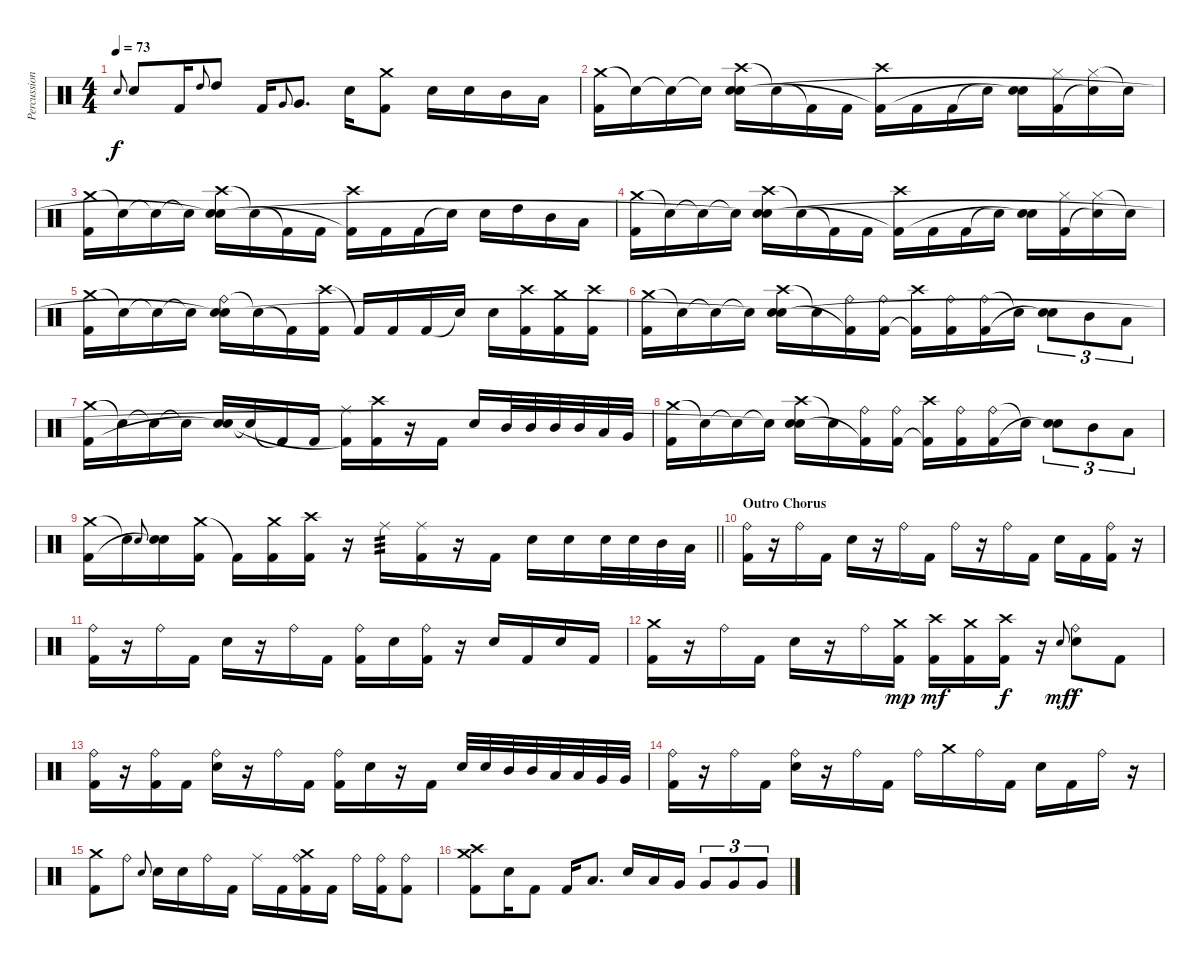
\track ("Percussion" "Percussion") {instrument percussion}
\staff {score}
\articulation defaults
\ts (4 4)
\tempo 73
\clef neutral
\ks c "Snare (hit) 2".8{gr onbeat dy f} "Snare (hit) 2".8 "Kick (hit) 2".16 "High Tom (hit)".8{gr onbeat} "High Tom (hit)".8 "Kick (hit) 2".16 "Very Low Tom (hit)".8{gr onbeat} "Very Low Tom (hit)".8{d} "Snare (hit) 2".16
("Crash medium (hit)" "Kick (hit) 2").8 "Snare (hit) 2".16 "Snare (hit) 2".16 "Mid Tom (hit)".16 "Low Tom (hit)".16 |
("Crash medium (hit)" "Kick (hit) 2").16 "Snare (hit)"{t}.16 "Snare (hit)"{t}.16 "Snare (hit)"{t}.16 ("Crash high (hit)" "Snare (hit) 2" "Snare (hit)"{t}).16 "Snare (hit)"{t}.16 "Kick (hit) 2"{t}.16 "Kick (hit) 2".16 ("Crash high (hit)" "Kick (hit) 2"{t}).16 "Kick (hit) 2".16 "Kick (hit) 2".16 "Snare (hit)"{t}.16 ("Snare (hit) 2" "Snare (hit)"{t}).16 ("Hi-Hat (closed)" "Kick (hit) 2").16 ("Hi-Hat (closed)" "Snare (hit)"{t}).16 "Snare (hit)"{t}.16 |
("Crash medium (hit)" "Kick (hit) 2").16 "Snare (hit)"{t}.16 "Snare (hit)"{t}.16 "Snare (hit)"{t}.16 ("Crash high (hit)" "Snare (hit) 2" "Snare (hit)"{t}).16 "Snare (hit)"{t}.16 "Kick (hit) 2"{t}.16 "Kick (hit) 2".16 ("Crash high (hit)" "Kick (hit) 2"{t}).16 "Kick (hit) 2".16 "Kick (hit) 2".16 "Snare (hit)"{t}.16 "Snare (hit) 2".16 "High Tom (hit)".16 "Mid Tom (hit)".16 "Low Tom (hit)".16 |
("Crash medium (hit)" "Kick (hit) 2").16 "Snare (hit)"{t}.16 "Snare (hit)"{t}.16 "Snare (hit)"{t}.16 ("Crash high (hit)" "Snare (hit) 2" "Snare (hit)"{t}).16 "Snare (hit)"{t}.16 "Kick (hit) 2"{t}.16 "Kick (hit) 2".16 ("Crash high (hit)" "Kick (hit) 2"{t}).16 "Kick (hit) 2".16 "Kick (hit) 2".16 "Snare (hit)"{t}.16 ("Snare (hit) 2" "Snare (hit)"{t}).16 ("Hi-Hat (closed)" "Kick (hit) 2").16 ("Hi-Hat (closed)" "Snare (hit)"{t}).16 "Snare (hit)"{t}.16 |
("Crash medium (hit)" "Kick (hit) 2").16 "Snare (hit)"{t}.16 "Snare (hit)"{t}.16 "Snare (hit)"{t}.16 ("Ride (bell)" "Snare (hit) 2" "Snare (hit)"{t}).16 "Snare (hit)"{t}.16 "Kick (hit) 2"{t}.16 ("Crash high (hit)" "Kick (hit) 2").16 "Kick (hit) 2"{t}.16 "Kick (hit) 2".16 "Kick (hit) 2".16 "Snare (hit)"{t}.16 "Snare (hit) 2".16 ("Crash high (hit)" "Kick (hit) 2").16 ("Crash medium (hit)" "Kick (hit) 2").16 ("Crash high (hit)" "Kick (hit) 2").16 |
("Crash medium (hit)" "Kick (hit) 2").16 "Snare (hit)"{t}.16 "Snare (hit)"{t}.16 "Snare (hit)"{t}.16 ("Crash high (hit)" "Snare (hit) 2" "Snare (hit)"{t}).16 "Snare (hit)"{t}.16 ("Ride (bell)" "Kick (hit) 2"{t}).16 ("Ride (bell)" "Kick (hit) 2").16 ("Crash high (hit)" "Kick (hit) 2"{t}).16 ("Ride (bell)" "Kick (hit) 2").16 ("Ride (bell)" "Kick (hit) 2").16 "Snare (hit)"{t}.16 ("Snare (hit) 2" "Snare (hit)"{t}).8{tu (3 2)} "Mid Tom (hit)".8{tu (3 2)} "Low Tom (hit)".8{tu (3 2)} |
("Crash medium (hit)" "Kick (hit) 2").16 "Snare (hit)"{t}.16 "Snare (hit)"{t}.16 "Snare (hit)"{t}.16 ("Snare (hit) 2" "Snare (hit)"{t}).16 "Snare (hit)"{t}.16 "Kick (hit) 2"{t}.16 "Kick (hit) 2".16 ("Ride (middle)" "Kick (hit) 2"{t}).16 ("Crash high (hit)" "Kick (hit) 2").16 r.16 "Kick (hit) 2".16 "Snare (hit) 2".16 "Mid Tom (hit)".32 "Mid Tom (hit)".32 "Mid Tom (hit)".32 "Mid Tom (hit)".32 "Low Tom (hit)".32 "Very Low Tom (hit)".32 |
("Crash medium (hit)" "Kick (hit) 2").16 "Snare (hit)"{t}.16 "Snare (hit)"{t}.16 "Snare (hit)"{t}.16 ("Crash high (hit)" "Snare (hit) 2" "Snare (hit)"{t}).16 "Snare (hit)"{t}.16 ("Ride (bell)" "Kick (hit) 2"{t}).16 ("Ride (bell)" "Kick (hit) 2").16 ("Crash high (hit)" "Kick (hit) 2"{t}).16 ("Ride (bell)" "Kick (hit) 2").16 ("Ride (bell)" "Kick (hit) 2").16 "Snare (hit)"{t}.16 ("Snare (hit) 2" "Snare (hit)"{t}).8{tu (3 2)} "Mid Tom (hit)".8{tu (3 2)} "Low Tom (hit)".8{tu (3 2)} |
\barLineRight lightlight
("Crash medium (hit)" "Kick (hit) 2").16 "Snare (hit)"{t}.16 "Snare (hit) 2".8{gr onbeat} ("Snare (hit) 2" "Snare (hit)"{t}).16 ("Crash medium (hit)" "Kick (hit) 2").16 "Kick (hit) 2"{t}.16 ("Crash medium (hit)" "Kick (hit) 2").16 ("Crash high (hit)" "Kick (hit) 2").16 r.16 "Ride (middle)".16{tp 3} ("Ride (middle)" "Kick (hit) 2").16 r.16 "Kick (hit) 2".16 "Snare (hit) 2".16 "Snare (hit) 2".16 "Snare (hit) 2".32 "Snare (hit) 2".32 "Mid Tom (hit)".32 "Low Tom (hit)".32 |
\section ("" "Outro Chorus")
("Ride (bell)" "Kick (hit) 2").16 r.16 "Ride (bell)".16 "Kick (hit) 2".16 "Snare (hit) 2".16 r.16 "Ride (bell)".16 "Kick (hit) 2".16 "Ride (bell)".16 r.16 "Ride (bell)".16 "Kick (hit) 2".16 "Snare (hit) 2".16 "Kick (hit) 2".16 ("Ride (bell)" "Kick (hit) 2").16 r.16 |
("Ride (bell)" "Kick (hit) 2").16 r.16 "Ride (bell)".16 "Kick (hit) 2".16 "Snare (hit) 2".16 r.16 "Ride (bell)".16 "Kick (hit) 2".16 ("Ride (bell)" "Kick (hit) 2").16 "Snare (hit) 2".16 ("Ride (bell)" "Kick (hit) 2").16 r.16 "Snare (hit) 2".16 "Kick (hit) 2".16 "Snare (hit) 2".16 "Kick (hit) 2".16 |
("Crash medium (hit)" "Kick (hit) 2").16 r.16 "Ride (bell)".16 "Kick (hit) 2".16 "Snare (hit) 2".16 r.16 "Ride (bell)".16 ("Crash medium (hit)" "Kick (hit) 2").16{dy mp} ("Crash high (hit)" "Kick (hit) 2").16{dy mf} ("Crash medium (hit)" "Kick (hit) 2").16 ("Crash high (hit)" "Kick (hit) 2").16{dy f} r.16 "Snare (hit) 2".8{gr onbeat dy mf} ("Ride (bell)" "Snare (hit) 2").8{dy f} "Kick (hit) 2".8 |
("Ride (bell)" "Kick (hit) 2").16 r.16 ("Ride (bell)" "Kick (hit) 2").16 "Kick (hit) 2".16 ("Ride (bell)" "Snare (hit) 2").16 r.16 "Ride (bell)".16 "Kick (hit) 2".16 ("Ride (bell)" "Kick (hit) 2").16 "Snare (hit) 2".16 r.16 "Kick (hit) 2".16 "Snare (hit) 2".32 "Snare (hit) 2".32 "Mid Tom (hit)".32 "Mid Tom (hit)".32 "Low Tom (hit)".32 "Low Tom (hit)".32 "Very Low Tom (hit)".32 "Very Low Tom (hit)".32 |
("Ride (bell)" "Kick (hit) 2").16 r.16 "Ride (bell)".16 "Kick (hit) 2".16 ("Ride (bell)" "Snare (hit) 2").16 r.16 "Ride (bell)".16 "Kick (hit) 2".16 "Ride (bell)".16 "Crash medium (hit)".16 "Ride (bell)".16 "Kick (hit) 2".16 "Snare (hit) 2".16 "Kick (hit) 2".16 "Ride (bell)".16 r.16 |
("Crash medium (hit)" "Kick (hit) 2").8 "Ride (bell)".8 "Snare (hit) 2".8{gr onbeat} "Snare (hit) 2".16 "Snare (hit) 2".16 "Ride (bell)".16 "Kick (hit) 2".16 "Ride (middle)".16 "Kick (hit) 2".16 ("Crash medium (hit)" "Ride (bell)" "Kick (hit) 2").16 "Kick (hit) 2".16 "Ride (bell)".16 ("Ride (bell)" "Kick (hit) 2").16 ("Ride (bell)" "Kick (hit) 2").8 |
("Crash medium (hit)" "Crash high (hit)" "Kick (hit) 2").8 "Snare (hit) 2".16 "Kick (hit) 2".8 "Kick (hit) 2".16 "Low Tom (hit)".8{d} "Snare (hit) 2".16 "Low Tom (hit)".16 "Very Low Tom (hit)".16 "Very Low Tom (hit)".8{tu (3 2)} "Very Low Tom (hit)".8{tu (3 2)} "Very Low Tom (hit)".8{tu (3 2)}
